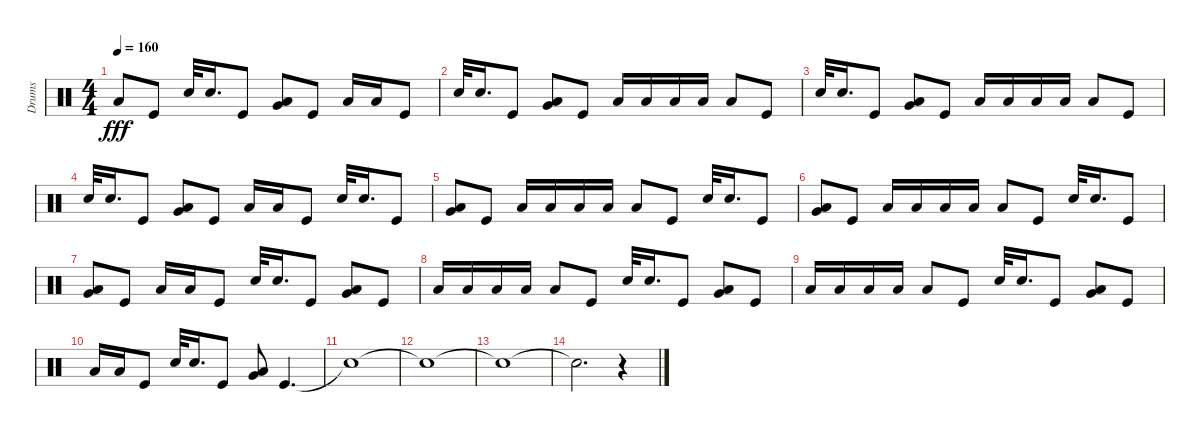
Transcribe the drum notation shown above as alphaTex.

\track ("Drums" "Drums") {instrument percussion}
\staff {score}
\articulation defaults
\ts (4 4)
\tempo 160
\clef neutral
\ks c "Low Floor Tom (hit)".8{dy fff} "Kick (hit)".8 "Electric Snare (hit)".32 "Electric Snare (hit)".16{d} "Kick (hit)".8
("Low Floor Tom (hit)" "Very Low Tom (hit)").8 "Kick (hit)".8 "Low Floor Tom (hit)".16 "Low Floor Tom (hit)".16 "Kick (hit)".8 |
"Electric Snare (hit)".32 "Electric Snare (hit)".16{d} "Kick (hit)".8 ("Low Floor Tom (hit)" "Very Low Tom (hit)").8 "Kick (hit)".8 "Low Floor Tom (hit)".16 "Low Floor Tom (hit)".16 "Low Floor Tom (hit)".16 "Low Floor Tom (hit)".16 "Low Floor Tom (hit)".8 "Kick (hit)".8 |
"Electric Snare (hit)".32 "Electric Snare (hit)".16{d} "Kick (hit)".8 ("Low Floor Tom (hit)" "Very Low Tom (hit)").8 "Kick (hit)".8 "Low Floor Tom (hit)".16 "Low Floor Tom (hit)".16 "Low Floor Tom (hit)".16 "Low Floor Tom (hit)".16 "Low Floor Tom (hit)".8 "Kick (hit)".8 |
"Electric Snare (hit)".32 "Electric Snare (hit)".16{d} "Kick (hit)".8 ("Low Floor Tom (hit)" "Very Low Tom (hit)").8 "Kick (hit)".8 "Low Floor Tom (hit)".16 "Low Floor Tom (hit)".16 "Kick (hit)".8 "Electric Snare (hit)".32 "Electric Snare (hit)".16{d} "Kick (hit)".8 |
("Low Floor Tom (hit)" "Very Low Tom (hit)").8 "Kick (hit)".8 "Low Floor Tom (hit)".16 "Low Floor Tom (hit)".16 "Low Floor Tom (hit)".16 "Low Floor Tom (hit)".16 "Low Floor Tom (hit)".8 "Kick (hit)".8 "Electric Snare (hit)".32 "Electric Snare (hit)".16{d} "Kick (hit)".8 |
("Low Floor Tom (hit)" "Very Low Tom (hit)").8 "Kick (hit)".8 "Low Floor Tom (hit)".16 "Low Floor Tom (hit)".16 "Low Floor Tom (hit)".16 "Low Floor Tom (hit)".16 "Low Floor Tom (hit)".8 "Kick (hit)".8 "Electric Snare (hit)".32 "Electric Snare (hit)".16{d} "Kick (hit)".8 |
("Low Floor Tom (hit)" "Very Low Tom (hit)").8 "Kick (hit)".8 "Low Floor Tom (hit)".16 "Low Floor Tom (hit)".16 "Kick (hit)".8 "Electric Snare (hit)".32 "Electric Snare (hit)".16{d} "Kick (hit)".8 ("Low Floor Tom (hit)" "Very Low Tom (hit)").8 "Kick (hit)".8 |
"Low Floor Tom (hit)".16 "Low Floor Tom (hit)".16 "Low Floor Tom (hit)".16 "Low Floor Tom (hit)".16 "Low Floor Tom (hit)".8 "Kick (hit)".8 "Electric Snare (hit)".32 "Electric Snare (hit)".16{d} "Kick (hit)".8 ("Low Floor Tom (hit)" "Very Low Tom (hit)").8 "Kick (hit)".8 |
"Low Floor Tom (hit)".16 "Low Floor Tom (hit)".16 "Low Floor Tom (hit)".16 "Low Floor Tom (hit)".16 "Low Floor Tom (hit)".8 "Kick (hit)".8 "Electric Snare (hit)".32 "Electric Snare (hit)".16{d} "Kick (hit)".8 ("Low Floor Tom (hit)" "Very Low Tom (hit)").8 "Kick (hit)".8 |
"Low Floor Tom (hit)".16 "Low Floor Tom (hit)".16 "Kick (hit)".8 "Electric Snare (hit)".32 "Electric Snare (hit)".16{d} "Kick (hit)".8 ("Low Floor Tom (hit)" "Very Low Tom (hit)").8 "Kick (hit)".4{d} |
"Snare (hit)"{t}.1 |
"Snare (hit)"{t}.1 |
"Snare (hit)"{t}.1 |
"Snare (hit)"{t}.2{d} r.4
